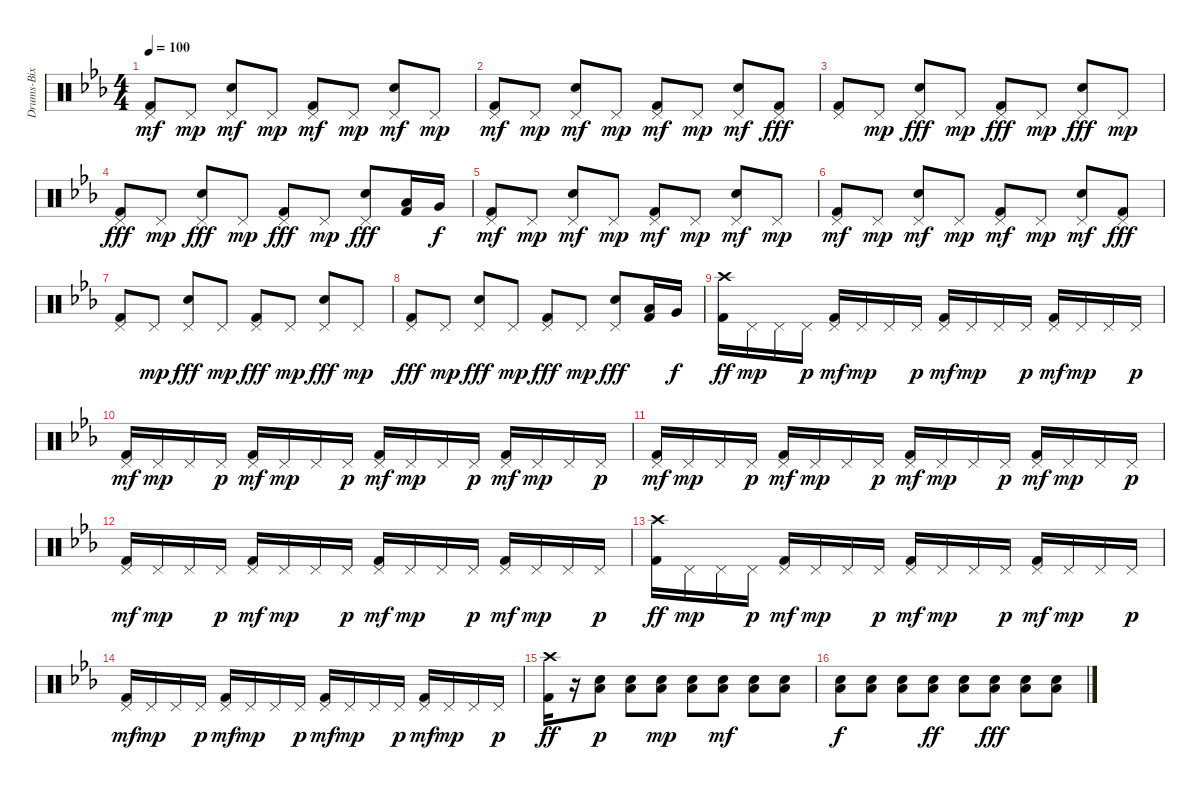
\track ("Drums-Bix" "Drums-Bix") {instrument percussion}
\staff {score}
\articulation defaults
\ts (4 4)
\tempo 100
\clef neutral
\ks eb
("Kick (hit) 2" "Pedal Hi-Hat (hit)").8{dy mf} "Pedal Hi-Hat (hit)".8{dy mp} ("Electric Snare (hit)" "Pedal Hi-Hat (hit)").8{dy mf} "Pedal Hi-Hat (hit)".8{dy mp} ("Kick (hit) 2" "Pedal Hi-Hat (hit)").8{dy mf} "Pedal Hi-Hat (hit)".8{dy mp} ("Electric Snare (hit)" "Pedal Hi-Hat (hit)").8{dy mf} "Pedal Hi-Hat (hit)".8{dy mp} |
("Kick (hit) 2" "Pedal Hi-Hat (hit)").8{dy mf} "Pedal Hi-Hat (hit)".8{dy mp} ("Electric Snare (hit)" "Pedal Hi-Hat (hit)").8{dy mf} "Pedal Hi-Hat (hit)".8{dy mp} ("Kick (hit) 2" "Pedal Hi-Hat (hit)").8{dy mf} "Pedal Hi-Hat (hit)".8{dy mp} ("Electric Snare (hit)" "Pedal Hi-Hat (hit)").8{dy mf} ("Pedal Hi-Hat (hit)" "Kick (hit) 2").8{dy fff} |
("Pedal Hi-Hat (hit)" "Kick (hit) 2").8 "Pedal Hi-Hat (hit)".8{dy mp} ("Pedal Hi-Hat (hit)" "Electric Snare (hit)").8{dy fff} "Pedal Hi-Hat (hit)".8{dy mp} ("Pedal Hi-Hat (hit)" "Kick (hit) 2").8{dy fff} "Pedal Hi-Hat (hit)".8{dy mp} ("Pedal Hi-Hat (hit)" "Electric Snare (hit)").8{dy fff} "Pedal Hi-Hat (hit)".8{dy mp} |
("Pedal Hi-Hat (hit)" "Kick (hit) 2").8{dy fff} "Pedal Hi-Hat (hit)".8{dy mp} ("Pedal Hi-Hat (hit)" "Electric Snare (hit)").8{dy fff} "Pedal Hi-Hat (hit)".8{dy mp} ("Pedal Hi-Hat (hit)" "Kick (hit) 2").8{dy fff} "Pedal Hi-Hat (hit)".8{dy mp} ("Pedal Hi-Hat (hit)" "Electric Snare (hit)").8{dy fff} ("Kick (hit) 2" "Low Tom (hit)").16 "Very Low Tom (hit)".16{dy f} |
("Kick (hit) 2" "Pedal Hi-Hat (hit)").8{dy mf} "Pedal Hi-Hat (hit)".8{dy mp} ("Electric Snare (hit)" "Pedal Hi-Hat (hit)").8{dy mf} "Pedal Hi-Hat (hit)".8{dy mp} ("Kick (hit) 2" "Pedal Hi-Hat (hit)").8{dy mf} "Pedal Hi-Hat (hit)".8{dy mp} ("Electric Snare (hit)" "Pedal Hi-Hat (hit)").8{dy mf} "Pedal Hi-Hat (hit)".8{dy mp} |
("Kick (hit) 2" "Pedal Hi-Hat (hit)").8{dy mf} "Pedal Hi-Hat (hit)".8{dy mp} ("Electric Snare (hit)" "Pedal Hi-Hat (hit)").8{dy mf} "Pedal Hi-Hat (hit)".8{dy mp} ("Kick (hit) 2" "Pedal Hi-Hat (hit)").8{dy mf} "Pedal Hi-Hat (hit)".8{dy mp} ("Electric Snare (hit)" "Pedal Hi-Hat (hit)").8{dy mf} ("Pedal Hi-Hat (hit)" "Kick (hit) 2").8{dy fff} |
("Pedal Hi-Hat (hit)" "Kick (hit) 2").8 "Pedal Hi-Hat (hit)".8{dy mp} ("Pedal Hi-Hat (hit)" "Electric Snare (hit)").8{dy fff} "Pedal Hi-Hat (hit)".8{dy mp} ("Pedal Hi-Hat (hit)" "Kick (hit) 2").8{dy fff} "Pedal Hi-Hat (hit)".8{dy mp} ("Pedal Hi-Hat (hit)" "Electric Snare (hit)").8{dy fff} "Pedal Hi-Hat (hit)".8{dy mp} |
("Pedal Hi-Hat (hit)" "Kick (hit) 2").8{dy fff} "Pedal Hi-Hat (hit)".8{dy mp} ("Pedal Hi-Hat (hit)" "Electric Snare (hit)").8{dy fff} "Pedal Hi-Hat (hit)".8{dy mp} ("Pedal Hi-Hat (hit)" "Kick (hit) 2").8{dy fff} "Pedal Hi-Hat (hit)".8{dy mp} ("Pedal Hi-Hat (hit)" "Electric Snare (hit)").8{dy fff} ("Kick (hit) 2" "Low Tom (hit)").16 "Very Low Tom (hit)".16{dy f} |
("Kick (hit) 2" "Crash high (hit)").16{dy ff} "Pedal Hi-Hat (hit)".16{dy mp} "Pedal Hi-Hat (hit)".16 "Pedal Hi-Hat (hit)".16{dy p} ("Kick (hit) 2" "Pedal Hi-Hat (hit)").16{dy mf} "Pedal Hi-Hat (hit)".16{dy mp} "Pedal Hi-Hat (hit)".16 "Pedal Hi-Hat (hit)".16{dy p} ("Kick (hit) 2" "Pedal Hi-Hat (hit)").16{dy mf} "Pedal Hi-Hat (hit)".16{dy mp} "Pedal Hi-Hat (hit)".16 "Pedal Hi-Hat (hit)".16{dy p} ("Kick (hit) 2" "Pedal Hi-Hat (hit)").16{dy mf} "Pedal Hi-Hat (hit)".16{dy mp} "Pedal Hi-Hat (hit)".16 "Pedal Hi-Hat (hit)".16{dy p} |
("Kick (hit) 2" "Pedal Hi-Hat (hit)").16{dy mf} "Pedal Hi-Hat (hit)".16{dy mp} "Pedal Hi-Hat (hit)".16 "Pedal Hi-Hat (hit)".16{dy p} ("Kick (hit) 2" "Pedal Hi-Hat (hit)").16{dy mf} "Pedal Hi-Hat (hit)".16{dy mp} "Pedal Hi-Hat (hit)".16 "Pedal Hi-Hat (hit)".16{dy p} ("Kick (hit) 2" "Pedal Hi-Hat (hit)").16{dy mf} "Pedal Hi-Hat (hit)".16{dy mp} "Pedal Hi-Hat (hit)".16 "Pedal Hi-Hat (hit)".16{dy p} ("Kick (hit) 2" "Pedal Hi-Hat (hit)").16{dy mf} "Pedal Hi-Hat (hit)".16{dy mp} "Pedal Hi-Hat (hit)".16 "Pedal Hi-Hat (hit)".16{dy p} |
("Kick (hit) 2" "Pedal Hi-Hat (hit)").16{dy mf} "Pedal Hi-Hat (hit)".16{dy mp} "Pedal Hi-Hat (hit)".16 "Pedal Hi-Hat (hit)".16{dy p} ("Kick (hit) 2" "Pedal Hi-Hat (hit)").16{dy mf} "Pedal Hi-Hat (hit)".16{dy mp} "Pedal Hi-Hat (hit)".16 "Pedal Hi-Hat (hit)".16{dy p} ("Kick (hit) 2" "Pedal Hi-Hat (hit)").16{dy mf} "Pedal Hi-Hat (hit)".16{dy mp} "Pedal Hi-Hat (hit)".16 "Pedal Hi-Hat (hit)".16{dy p} ("Kick (hit) 2" "Pedal Hi-Hat (hit)").16{dy mf} "Pedal Hi-Hat (hit)".16{dy mp} "Pedal Hi-Hat (hit)".16 "Pedal Hi-Hat (hit)".16{dy p} |
("Kick (hit) 2" "Pedal Hi-Hat (hit)").16{dy mf} "Pedal Hi-Hat (hit)".16{dy mp} "Pedal Hi-Hat (hit)".16 "Pedal Hi-Hat (hit)".16{dy p} ("Kick (hit) 2" "Pedal Hi-Hat (hit)").16{dy mf} "Pedal Hi-Hat (hit)".16{dy mp} "Pedal Hi-Hat (hit)".16 "Pedal Hi-Hat (hit)".16{dy p} ("Kick (hit) 2" "Pedal Hi-Hat (hit)").16{dy mf} "Pedal Hi-Hat (hit)".16{dy mp} "Pedal Hi-Hat (hit)".16 "Pedal Hi-Hat (hit)".16{dy p} ("Kick (hit) 2" "Pedal Hi-Hat (hit)").16{dy mf} "Pedal Hi-Hat (hit)".16{dy mp} "Pedal Hi-Hat (hit)".16 "Pedal Hi-Hat (hit)".16{dy p} |
("Kick (hit) 2" "Crash high (hit)").16{dy ff} "Pedal Hi-Hat (hit)".16{dy mp} "Pedal Hi-Hat (hit)".16 "Pedal Hi-Hat (hit)".16{dy p} ("Kick (hit) 2" "Pedal Hi-Hat (hit)").16{dy mf} "Pedal Hi-Hat (hit)".16{dy mp} "Pedal Hi-Hat (hit)".16 "Pedal Hi-Hat (hit)".16{dy p} ("Kick (hit) 2" "Pedal Hi-Hat (hit)").16{dy mf} "Pedal Hi-Hat (hit)".16{dy mp} "Pedal Hi-Hat (hit)".16 "Pedal Hi-Hat (hit)".16{dy p} ("Kick (hit) 2" "Pedal Hi-Hat (hit)").16{dy mf} "Pedal Hi-Hat (hit)".16{dy mp} "Pedal Hi-Hat (hit)".16 "Pedal Hi-Hat (hit)".16{dy p} |
("Kick (hit) 2" "Pedal Hi-Hat (hit)").16{dy mf} "Pedal Hi-Hat (hit)".16{dy mp} "Pedal Hi-Hat (hit)".16 "Pedal Hi-Hat (hit)".16{dy p} ("Kick (hit) 2" "Pedal Hi-Hat (hit)").16{dy mf} "Pedal Hi-Hat (hit)".16{dy mp} "Pedal Hi-Hat (hit)".16 "Pedal Hi-Hat (hit)".16{dy p} ("Kick (hit) 2" "Pedal Hi-Hat (hit)").16{dy mf} "Pedal Hi-Hat (hit)".16{dy mp} "Pedal Hi-Hat (hit)".16 "Pedal Hi-Hat (hit)".16{dy p} ("Kick (hit) 2" "Pedal Hi-Hat (hit)").16{dy mf} "Pedal Hi-Hat (hit)".16{dy mp} "Pedal Hi-Hat (hit)".16 "Pedal Hi-Hat (hit)".16{dy p} |
("Kick (hit) 2" "Crash high (hit)").16{dy ff} r.16 ("Electric Snare (hit)" "Low Floor Tom (hit)").8{dy p} ("Electric Snare (hit)" "Low Floor Tom (hit)").8 ("Electric Snare (hit)" "Low Floor Tom (hit)").8{dy mp} ("Electric Snare (hit)" "Low Floor Tom (hit)").8 ("Electric Snare (hit)" "Low Floor Tom (hit)").8{dy mf} ("Electric Snare (hit)" "Low Floor Tom (hit)").8 ("Electric Snare (hit)" "Low Floor Tom (hit)").8 |
("Electric Snare (hit)" "Low Floor Tom (hit)").8{dy f} ("Electric Snare (hit)" "Low Floor Tom (hit)").8 ("Electric Snare (hit)" "Low Floor Tom (hit)").8 ("Electric Snare (hit)" "Low Floor Tom (hit)").8{dy ff} ("Electric Snare (hit)" "Low Floor Tom (hit)").8 ("Electric Snare (hit)" "Low Floor Tom (hit)").8{dy fff} ("Electric Snare (hit)" "Low Floor Tom (hit)").8 ("Electric Snare (hit)" "Low Floor Tom (hit)").8
